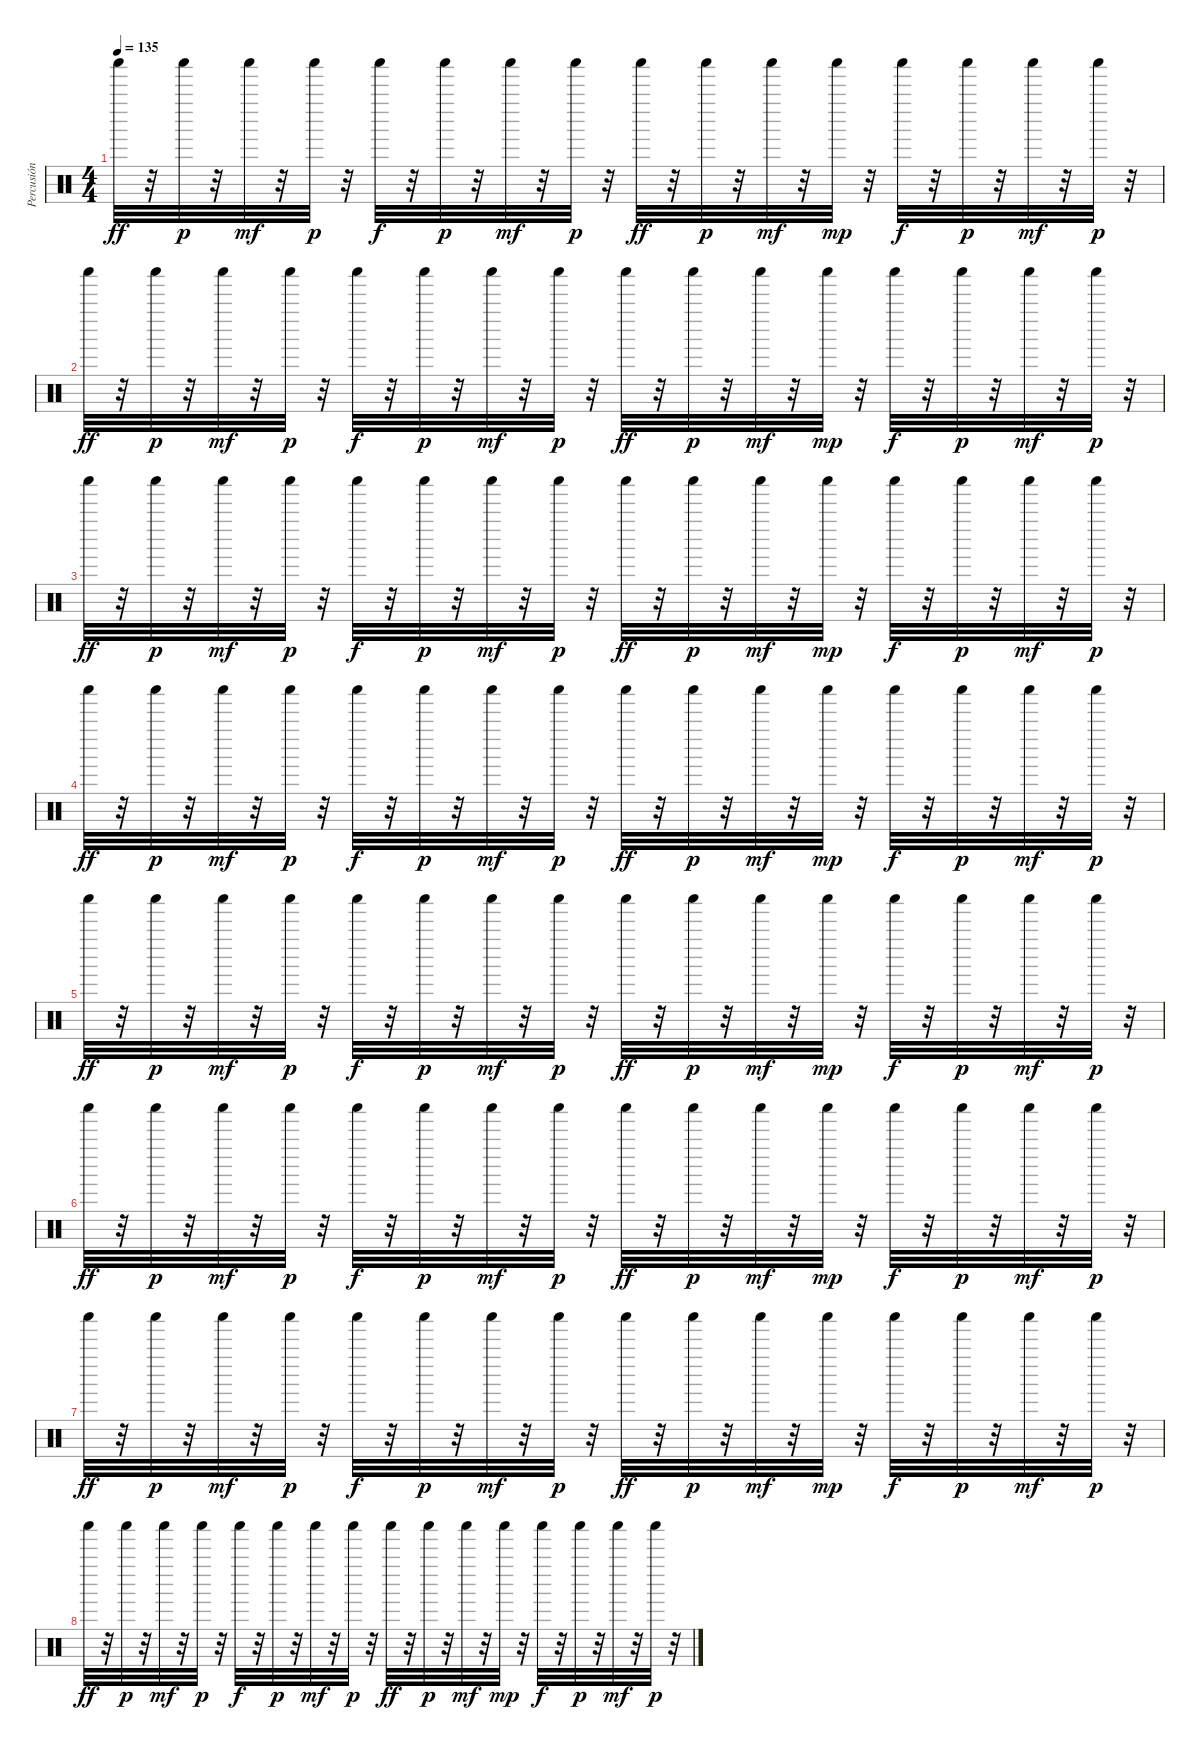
\track ("Percusión" "Percusión") {instrument percussion}
\staff {score}
\articulation defaults
\ts (4 4)
\tempo 135
\clef neutral
\ks c "Shaker (hit)".32{dy ff}
r.32 "Shaker (hit)".32{dy p} r.32 "Shaker (hit)".32{dy mf} r.32 "Shaker (hit)".32{dy p} r.32 "Shaker (hit)".32{dy f} r.32 "Shaker (hit)".32{dy p} r.32 "Shaker (hit)".32{dy mf} r.32 "Shaker (hit)".32{dy p} r.32 "Shaker (hit)".32{dy ff} r.32 "Shaker (hit)".32{dy p} r.32 "Shaker (hit)".32{dy mf} r.32 "Shaker (hit)".32{dy mp} r.32 "Shaker (hit)".32{dy f} r.32 "Shaker (hit)".32{dy p} r.32 "Shaker (hit)".32{dy mf} r.32 "Shaker (hit)".32{dy p} r.32 |
"Shaker (hit)".32{dy ff} r.32 "Shaker (hit)".32{dy p} r.32 "Shaker (hit)".32{dy mf} r.32 "Shaker (hit)".32{dy p} r.32 "Shaker (hit)".32{dy f} r.32 "Shaker (hit)".32{dy p} r.32 "Shaker (hit)".32{dy mf} r.32 "Shaker (hit)".32{dy p} r.32 "Shaker (hit)".32{dy ff} r.32 "Shaker (hit)".32{dy p} r.32 "Shaker (hit)".32{dy mf} r.32 "Shaker (hit)".32{dy mp} r.32 "Shaker (hit)".32{dy f} r.32 "Shaker (hit)".32{dy p} r.32 "Shaker (hit)".32{dy mf} r.32 "Shaker (hit)".32{dy p} r.32 |
"Shaker (hit)".32{dy ff} r.32 "Shaker (hit)".32{dy p} r.32 "Shaker (hit)".32{dy mf} r.32 "Shaker (hit)".32{dy p} r.32 "Shaker (hit)".32{dy f} r.32 "Shaker (hit)".32{dy p} r.32 "Shaker (hit)".32{dy mf} r.32 "Shaker (hit)".32{dy p} r.32 "Shaker (hit)".32{dy ff} r.32 "Shaker (hit)".32{dy p} r.32 "Shaker (hit)".32{dy mf} r.32 "Shaker (hit)".32{dy mp} r.32 "Shaker (hit)".32{dy f} r.32 "Shaker (hit)".32{dy p} r.32 "Shaker (hit)".32{dy mf} r.32 "Shaker (hit)".32{dy p} r.32 |
"Shaker (hit)".32{dy ff} r.32 "Shaker (hit)".32{dy p} r.32 "Shaker (hit)".32{dy mf} r.32 "Shaker (hit)".32{dy p} r.32 "Shaker (hit)".32{dy f} r.32 "Shaker (hit)".32{dy p} r.32 "Shaker (hit)".32{dy mf} r.32 "Shaker (hit)".32{dy p} r.32 "Shaker (hit)".32{dy ff} r.32 "Shaker (hit)".32{dy p} r.32 "Shaker (hit)".32{dy mf} r.32 "Shaker (hit)".32{dy mp} r.32 "Shaker (hit)".32{dy f} r.32 "Shaker (hit)".32{dy p} r.32 "Shaker (hit)".32{dy mf} r.32 "Shaker (hit)".32{dy p} r.32 |
"Shaker (hit)".32{dy ff} r.32 "Shaker (hit)".32{dy p} r.32 "Shaker (hit)".32{dy mf} r.32 "Shaker (hit)".32{dy p} r.32 "Shaker (hit)".32{dy f} r.32 "Shaker (hit)".32{dy p} r.32 "Shaker (hit)".32{dy mf} r.32 "Shaker (hit)".32{dy p} r.32 "Shaker (hit)".32{dy ff} r.32 "Shaker (hit)".32{dy p} r.32 "Shaker (hit)".32{dy mf} r.32 "Shaker (hit)".32{dy mp} r.32 "Shaker (hit)".32{dy f} r.32 "Shaker (hit)".32{dy p} r.32 "Shaker (hit)".32{dy mf} r.32 "Shaker (hit)".32{dy p} r.32 |
"Shaker (hit)".32{dy ff} r.32 "Shaker (hit)".32{dy p} r.32 "Shaker (hit)".32{dy mf} r.32 "Shaker (hit)".32{dy p} r.32 "Shaker (hit)".32{dy f} r.32 "Shaker (hit)".32{dy p} r.32 "Shaker (hit)".32{dy mf} r.32 "Shaker (hit)".32{dy p} r.32 "Shaker (hit)".32{dy ff} r.32 "Shaker (hit)".32{dy p} r.32 "Shaker (hit)".32{dy mf} r.32 "Shaker (hit)".32{dy mp} r.32 "Shaker (hit)".32{dy f} r.32 "Shaker (hit)".32{dy p} r.32 "Shaker (hit)".32{dy mf} r.32 "Shaker (hit)".32{dy p} r.32 |
"Shaker (hit)".32{dy ff} r.32 "Shaker (hit)".32{dy p} r.32 "Shaker (hit)".32{dy mf} r.32 "Shaker (hit)".32{dy p} r.32 "Shaker (hit)".32{dy f} r.32 "Shaker (hit)".32{dy p} r.32 "Shaker (hit)".32{dy mf} r.32 "Shaker (hit)".32{dy p} r.32 "Shaker (hit)".32{dy ff} r.32 "Shaker (hit)".32{dy p} r.32 "Shaker (hit)".32{dy mf} r.32 "Shaker (hit)".32{dy mp} r.32 "Shaker (hit)".32{dy f} r.32 "Shaker (hit)".32{dy p} r.32 "Shaker (hit)".32{dy mf} r.32 "Shaker (hit)".32{dy p} r.32 |
"Shaker (hit)".32{dy ff} r.32 "Shaker (hit)".32{dy p} r.32 "Shaker (hit)".32{dy mf} r.32 "Shaker (hit)".32{dy p} r.32 "Shaker (hit)".32{dy f} r.32 "Shaker (hit)".32{dy p} r.32 "Shaker (hit)".32{dy mf} r.32 "Shaker (hit)".32{dy p} r.32 "Shaker (hit)".32{dy ff} r.32 "Shaker (hit)".32{dy p} r.32 "Shaker (hit)".32{dy mf} r.32 "Shaker (hit)".32{dy mp} r.32 "Shaker (hit)".32{dy f} r.32 "Shaker (hit)".32{dy p} r.32 "Shaker (hit)".32{dy mf} r.32 "Shaker (hit)".32{dy p} r.32
